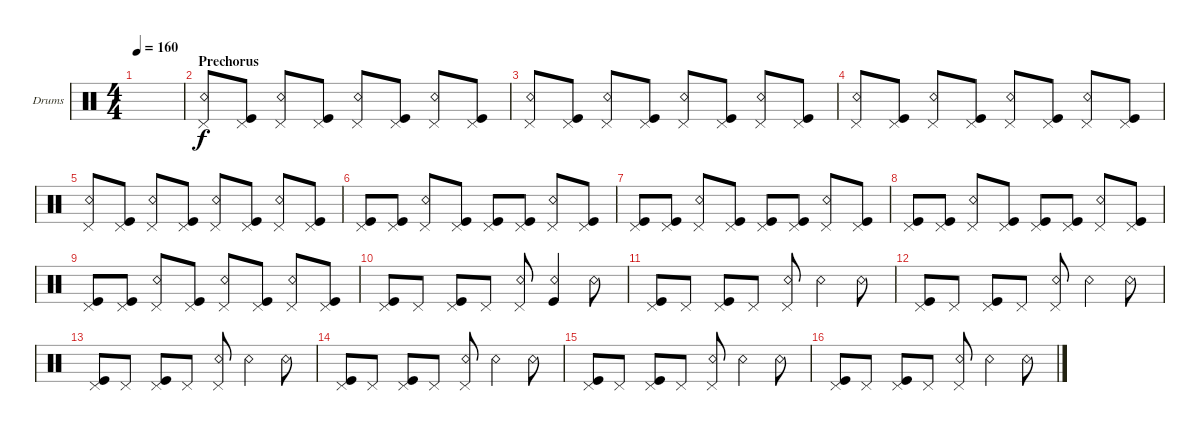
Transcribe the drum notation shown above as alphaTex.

\bracketExtendMode groupsimilarinstruments
\firstSystemTrackNameOrientation horizontal
\otherSystemsTrackNameOrientation horizontal
\track ("Drumkit" "Drums") {instrument percussion}
\staff {score}
\articulation defaults
\ts (4 4)
\tempo 160
\clef neutral
\ks c
|
\section ("" "Prechorus")
("Pedal Hi-Hat (hit)" "Snare (rim shot)").8 ("Pedal Hi-Hat (hit)" "Kick (hit)").8 ("Pedal Hi-Hat (hit)" "Snare (rim shot)").8 ("Pedal Hi-Hat (hit)" "Kick (hit)").8 ("Pedal Hi-Hat (hit)" "Snare (rim shot)").8 ("Pedal Hi-Hat (hit)" "Kick (hit)").8 ("Pedal Hi-Hat (hit)" "Snare (rim shot)").8 ("Pedal Hi-Hat (hit)" "Kick (hit)").8 |
("Pedal Hi-Hat (hit)" "Snare (rim shot)").8 ("Pedal Hi-Hat (hit)" "Kick (hit)").8 ("Pedal Hi-Hat (hit)" "Snare (rim shot)").8 ("Pedal Hi-Hat (hit)" "Kick (hit)").8 ("Pedal Hi-Hat (hit)" "Snare (rim shot)").8 ("Pedal Hi-Hat (hit)" "Kick (hit)").8 ("Pedal Hi-Hat (hit)" "Snare (rim shot)").8 ("Pedal Hi-Hat (hit)" "Kick (hit)").8 |
("Pedal Hi-Hat (hit)" "Snare (rim shot)").8 ("Pedal Hi-Hat (hit)" "Kick (hit)").8 ("Pedal Hi-Hat (hit)" "Snare (rim shot)").8 ("Pedal Hi-Hat (hit)" "Kick (hit)").8 ("Pedal Hi-Hat (hit)" "Snare (rim shot)").8 ("Pedal Hi-Hat (hit)" "Kick (hit)").8 ("Pedal Hi-Hat (hit)" "Snare (rim shot)").8 ("Pedal Hi-Hat (hit)" "Kick (hit)").8 |
("Pedal Hi-Hat (hit)" "Snare (rim shot)").8 ("Pedal Hi-Hat (hit)" "Kick (hit)").8 ("Pedal Hi-Hat (hit)" "Snare (rim shot)").8 ("Pedal Hi-Hat (hit)" "Kick (hit)").8 ("Pedal Hi-Hat (hit)" "Snare (rim shot)").8 ("Pedal Hi-Hat (hit)" "Kick (hit)").8 ("Pedal Hi-Hat (hit)" "Snare (rim shot)").8 ("Pedal Hi-Hat (hit)" "Kick (hit)").8 |
("Pedal Hi-Hat (hit)" "Kick (hit)").8 ("Pedal Hi-Hat (hit)" "Kick (hit)").8 ("Pedal Hi-Hat (hit)" "Snare (rim shot)").8 ("Pedal Hi-Hat (hit)" "Kick (hit)").8 ("Pedal Hi-Hat (hit)" "Kick (hit)").8 ("Pedal Hi-Hat (hit)" "Kick (hit)").8 ("Pedal Hi-Hat (hit)" "Snare (rim shot)").8 ("Pedal Hi-Hat (hit)" "Kick (hit)").8 |
("Pedal Hi-Hat (hit)" "Kick (hit)").8 ("Pedal Hi-Hat (hit)" "Kick (hit)").8 ("Pedal Hi-Hat (hit)" "Snare (rim shot)").8 ("Pedal Hi-Hat (hit)" "Kick (hit)").8 ("Pedal Hi-Hat (hit)" "Kick (hit)").8 ("Pedal Hi-Hat (hit)" "Kick (hit)").8 ("Pedal Hi-Hat (hit)" "Snare (rim shot)").8 ("Pedal Hi-Hat (hit)" "Kick (hit)").8 |
("Pedal Hi-Hat (hit)" "Kick (hit)").8 ("Pedal Hi-Hat (hit)" "Kick (hit)").8 ("Pedal Hi-Hat (hit)" "Snare (rim shot)").8 ("Pedal Hi-Hat (hit)" "Kick (hit)").8 ("Pedal Hi-Hat (hit)" "Kick (hit)").8 ("Pedal Hi-Hat (hit)" "Kick (hit)").8 ("Pedal Hi-Hat (hit)" "Snare (rim shot)").8 ("Pedal Hi-Hat (hit)" "Kick (hit)").8 |
("Pedal Hi-Hat (hit)" "Kick (hit)").8 ("Pedal Hi-Hat (hit)" "Kick (hit)").8 ("Pedal Hi-Hat (hit)" "Snare (rim shot)").8 ("Pedal Hi-Hat (hit)" "Kick (hit)").8 ("Pedal Hi-Hat (hit)" "Snare (rim shot)").8 ("Pedal Hi-Hat (hit)" "Kick (hit)").8 ("Pedal Hi-Hat (hit)" "Snare (rim shot)").8 ("Pedal Hi-Hat (hit)" "Kick (hit)").8 |
("Pedal Hi-Hat (hit)" "Kick (hit)").8 "Pedal Hi-Hat (hit)".8 ("Pedal Hi-Hat (hit)" "Kick (hit)").8 "Pedal Hi-Hat (hit)".8 ("Pedal Hi-Hat (hit)" "Snare (rim shot)").8 ("Snare (rim shot)" "Kick (hit)").4 "Snare (rim shot)".8 |
("Pedal Hi-Hat (hit)" "Kick (hit)").8 "Pedal Hi-Hat (hit)".8 ("Pedal Hi-Hat (hit)" "Kick (hit)").8 "Pedal Hi-Hat (hit)".8 ("Pedal Hi-Hat (hit)" "Snare (rim shot)").8 "Snare (rim shot)".4 "Snare (rim shot)".8 |
("Pedal Hi-Hat (hit)" "Kick (hit)").8 "Pedal Hi-Hat (hit)".8 ("Pedal Hi-Hat (hit)" "Kick (hit)").8 "Pedal Hi-Hat (hit)".8 ("Pedal Hi-Hat (hit)" "Snare (rim shot)").8 "Snare (rim shot)".4 "Snare (rim shot)".8 |
("Pedal Hi-Hat (hit)" "Kick (hit)").8 "Pedal Hi-Hat (hit)".8 ("Pedal Hi-Hat (hit)" "Kick (hit)").8 "Pedal Hi-Hat (hit)".8 ("Pedal Hi-Hat (hit)" "Snare (rim shot)").8 "Snare (rim shot)".4 "Snare (rim shot)".8 |
("Pedal Hi-Hat (hit)" "Kick (hit)").8 "Pedal Hi-Hat (hit)".8 ("Pedal Hi-Hat (hit)" "Kick (hit)").8 "Pedal Hi-Hat (hit)".8 ("Pedal Hi-Hat (hit)" "Snare (rim shot)").8 "Snare (rim shot)".4 "Snare (rim shot)".8 |
("Pedal Hi-Hat (hit)" "Kick (hit)").8 "Pedal Hi-Hat (hit)".8 ("Pedal Hi-Hat (hit)" "Kick (hit)").8 "Pedal Hi-Hat (hit)".8 ("Pedal Hi-Hat (hit)" "Snare (rim shot)").8 "Snare (rim shot)".4 "Snare (rim shot)".8 |
("Pedal Hi-Hat (hit)" "Kick (hit)").8 "Pedal Hi-Hat (hit)".8 ("Pedal Hi-Hat (hit)" "Kick (hit)").8 "Pedal Hi-Hat (hit)".8 ("Pedal Hi-Hat (hit)" "Snare (rim shot)").8 "Snare (rim shot)".4 "Snare (rim shot)".8
